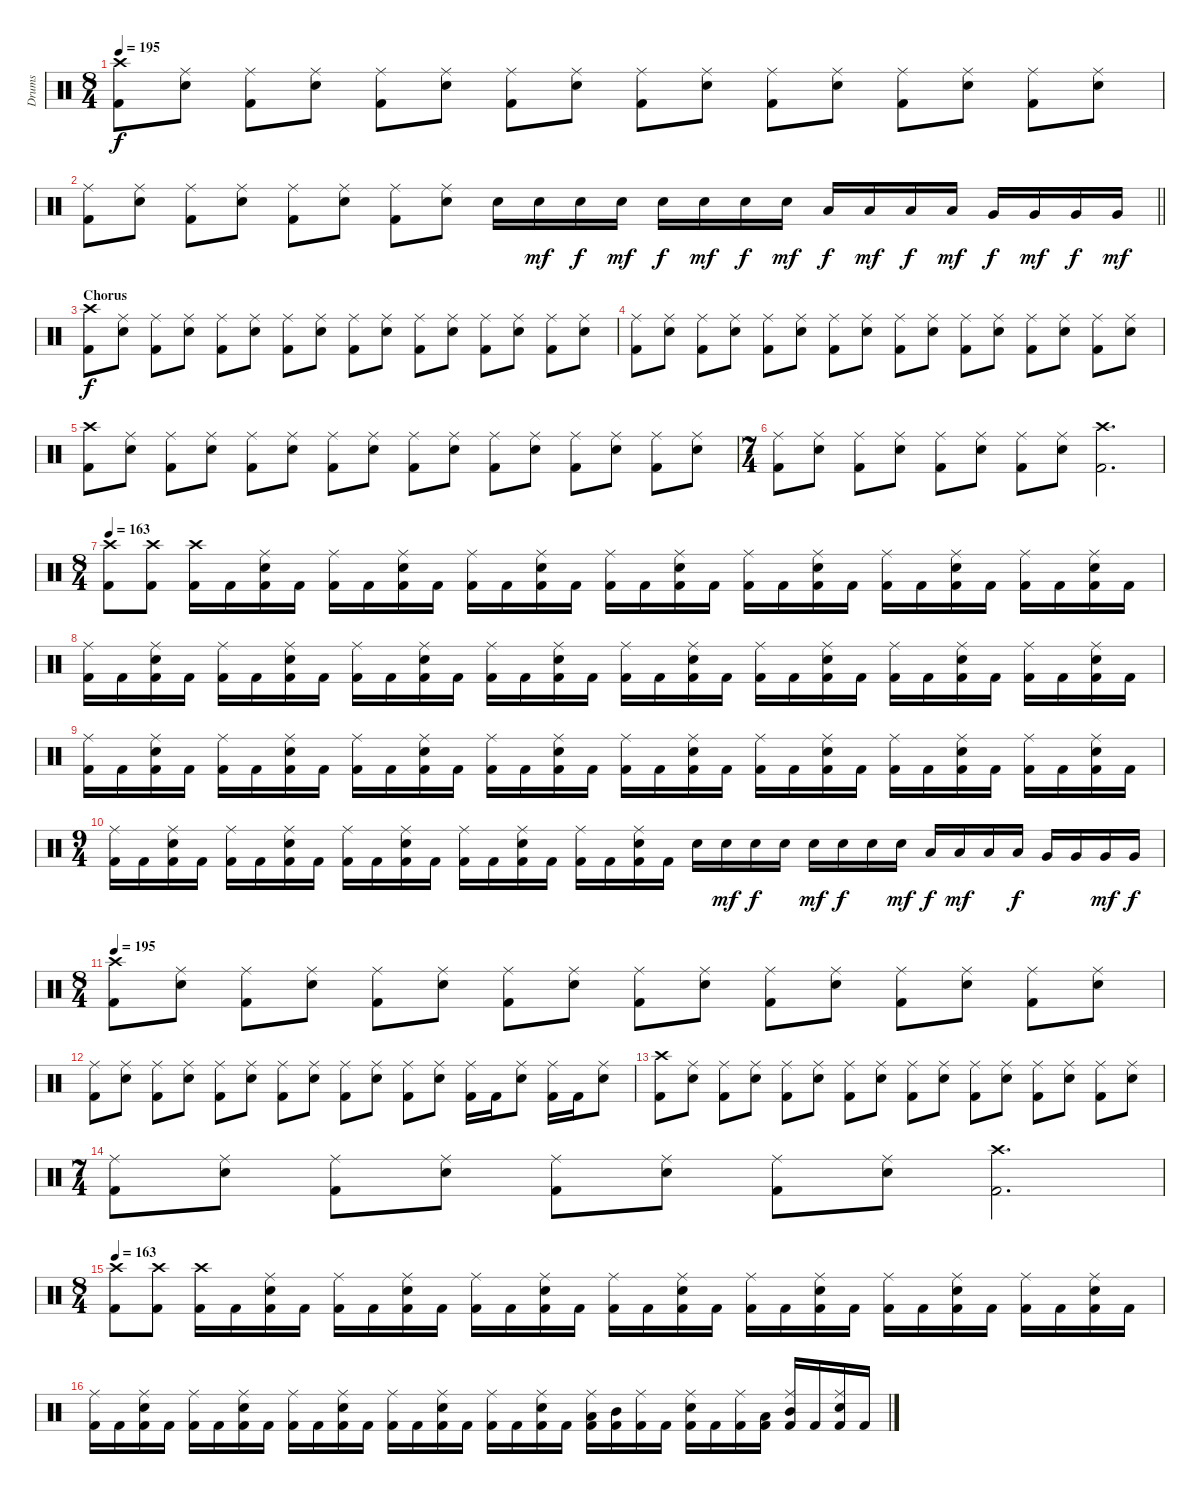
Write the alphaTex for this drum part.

\track ("Drums" "Drums") {instrument percussion}
\staff {score}
\articulation defaults
\ts (8 4)
\tempo 195
\clef neutral
\ks c
("Crash high (hit)" "Kick (hit) 2").8{dy f} ("Ride (middle)" "Snare (hit) 2").8 ("Ride (middle)" "Kick (hit) 2").8 ("Ride (middle)" "Snare (hit) 2").8 ("Ride (middle)" "Kick (hit) 2").8 ("Ride (middle)" "Snare (hit) 2").8 ("Ride (middle)" "Kick (hit) 2").8 ("Ride (middle)" "Snare (hit) 2").8 ("Ride (middle)" "Kick (hit) 2").8 ("Ride (middle)" "Snare (hit) 2").8 ("Ride (middle)" "Kick (hit) 2").8 ("Ride (middle)" "Snare (hit) 2").8 ("Ride (middle)" "Kick (hit) 2").8 ("Ride (middle)" "Snare (hit) 2").8 ("Ride (middle)" "Kick (hit) 2").8 ("Ride (middle)" "Snare (hit) 2").8 |
\barLineRight lightlight
("Ride (middle)" "Kick (hit) 2").8 ("Ride (middle)" "Snare (hit) 2").8 ("Ride (middle)" "Kick (hit) 2").8 ("Ride (middle)" "Snare (hit) 2").8 ("Ride (middle)" "Kick (hit) 2").8 ("Ride (middle)" "Snare (hit) 2").8 ("Ride (middle)" "Kick (hit) 2").8 ("Ride (middle)" "Snare (hit) 2").8 "Snare (hit) 2".16 "Snare (hit) 2".16{dy mf} "Snare (hit) 2".16{dy f} "Snare (hit) 2".16{dy mf} "Snare (hit) 2".16{dy f} "Snare (hit) 2".16{dy mf} "Snare (hit) 2".16{dy f} "Snare (hit) 2".16{dy mf} "Low Tom (hit)".16{dy f} "Low Tom (hit)".16{dy mf} "Low Tom (hit)".16{dy f} "Low Tom (hit)".16{dy mf} "Very Low Tom (hit)".16{dy f} "Very Low Tom (hit)".16{dy mf} "Very Low Tom (hit)".16{dy f} "Very Low Tom (hit)".16{dy mf} |
\section ("" "Chorus")
("Crash high (hit)" "Kick (hit) 2").8{dy f} ("Ride (middle)" "Snare (hit) 2").8 ("Ride (middle)" "Kick (hit) 2").8 ("Ride (middle)" "Snare (hit) 2").8 ("Ride (middle)" "Kick (hit) 2").8 ("Ride (middle)" "Snare (hit) 2").8 ("Ride (middle)" "Kick (hit) 2").8 ("Ride (middle)" "Snare (hit) 2").8 ("Ride (middle)" "Kick (hit) 2").8 ("Ride (middle)" "Snare (hit) 2").8 ("Ride (middle)" "Kick (hit) 2").8 ("Ride (middle)" "Snare (hit) 2").8 ("Ride (middle)" "Kick (hit) 2").8 ("Ride (middle)" "Snare (hit) 2").8 ("Ride (middle)" "Kick (hit) 2").8 ("Ride (middle)" "Snare (hit) 2").8 |
("Ride (middle)" "Kick (hit) 2").8 ("Ride (middle)" "Snare (hit) 2").8 ("Ride (middle)" "Kick (hit) 2").8 ("Ride (middle)" "Snare (hit) 2").8 ("Ride (middle)" "Kick (hit) 2").8 ("Ride (middle)" "Snare (hit) 2").8 ("Ride (middle)" "Kick (hit) 2").8 ("Ride (middle)" "Snare (hit) 2").8 ("Ride (middle)" "Kick (hit) 2").8 ("Ride (middle)" "Snare (hit) 2").8 ("Ride (middle)" "Kick (hit) 2").8 ("Ride (middle)" "Snare (hit) 2").8 ("Ride (middle)" "Kick (hit) 2").8 ("Ride (middle)" "Snare (hit) 2").8 ("Ride (middle)" "Kick (hit) 2").8 ("Ride (middle)" "Snare (hit) 2").8 |
("Crash high (hit)" "Kick (hit) 2").8 ("Ride (middle)" "Snare (hit) 2").8 ("Ride (middle)" "Kick (hit) 2").8 ("Ride (middle)" "Snare (hit) 2").8 ("Ride (middle)" "Kick (hit) 2").8 ("Ride (middle)" "Snare (hit) 2").8 ("Ride (middle)" "Kick (hit) 2").8 ("Ride (middle)" "Snare (hit) 2").8 ("Ride (middle)" "Kick (hit) 2").8 ("Ride (middle)" "Snare (hit) 2").8 ("Ride (middle)" "Kick (hit) 2").8 ("Ride (middle)" "Snare (hit) 2").8 ("Ride (middle)" "Kick (hit) 2").8 ("Ride (middle)" "Snare (hit) 2").8 ("Ride (middle)" "Kick (hit) 2").8 ("Ride (middle)" "Snare (hit) 2").8 |
\ts (7 4)
("Ride (middle)" "Kick (hit) 2").8 ("Ride (middle)" "Snare (hit) 2").8 ("Ride (middle)" "Kick (hit) 2").8 ("Ride (middle)" "Snare (hit) 2").8 ("Ride (middle)" "Kick (hit) 2").8 ("Ride (middle)" "Snare (hit) 2").8 ("Ride (middle)" "Kick (hit) 2").8 ("Ride (middle)" "Snare (hit) 2").8 ("Crash high (hit)" "Kick (hit) 2").2{d} |
\ts (8 4)
\tempo 163
("Crash high (hit)" "Kick (hit) 2").8 ("Crash high (hit)" "Kick (hit) 2").8 ("Crash high (hit)" "Kick (hit) 2").16 "Kick (hit) 2".16 ("Ride (middle)" "Snare (hit) 2" "Kick (hit) 2").16 "Kick (hit) 2".16 ("Ride (middle)" "Kick (hit) 2").16 "Kick (hit) 2".16 ("Ride (middle)" "Snare (hit) 2" "Kick (hit) 2").16 "Kick (hit) 2".16 ("Ride (middle)" "Kick (hit) 2").16 "Kick (hit) 2".16 ("Ride (middle)" "Snare (hit) 2" "Kick (hit) 2").16 "Kick (hit) 2".16 ("Ride (middle)" "Kick (hit) 2").16 "Kick (hit) 2".16 ("Ride (middle)" "Snare (hit) 2" "Kick (hit) 2").16 "Kick (hit) 2".16 ("Ride (middle)" "Kick (hit) 2").16 "Kick (hit) 2".16 ("Ride (middle)" "Snare (hit) 2" "Kick (hit) 2").16 "Kick (hit) 2".16 ("Ride (middle)" "Kick (hit) 2").16 "Kick (hit) 2".16 ("Ride (middle)" "Snare (hit) 2" "Kick (hit) 2").16 "Kick (hit) 2".16 ("Ride (middle)" "Kick (hit) 2").16 "Kick (hit) 2".16 ("Ride (middle)" "Snare (hit) 2" "Kick (hit) 2").16 "Kick (hit) 2".16 |
("Ride (middle)" "Kick (hit) 2").16 "Kick (hit) 2".16 ("Ride (middle)" "Snare (hit) 2" "Kick (hit) 2").16 "Kick (hit) 2".16 ("Ride (middle)" "Kick (hit) 2").16 "Kick (hit) 2".16 ("Ride (middle)" "Snare (hit) 2" "Kick (hit) 2").16 "Kick (hit) 2".16 ("Ride (middle)" "Kick (hit) 2").16 "Kick (hit) 2".16 ("Ride (middle)" "Snare (hit) 2" "Kick (hit) 2").16 "Kick (hit) 2".16 ("Ride (middle)" "Kick (hit) 2").16 "Kick (hit) 2".16 ("Ride (middle)" "Snare (hit) 2" "Kick (hit) 2").16 "Kick (hit) 2".16 ("Ride (middle)" "Kick (hit) 2").16 "Kick (hit) 2".16 ("Ride (middle)" "Snare (hit) 2" "Kick (hit) 2").16 "Kick (hit) 2".16 ("Ride (middle)" "Kick (hit) 2").16 "Kick (hit) 2".16 ("Ride (middle)" "Snare (hit) 2" "Kick (hit) 2").16 "Kick (hit) 2".16 ("Ride (middle)" "Kick (hit) 2").16 "Kick (hit) 2".16 ("Ride (middle)" "Snare (hit) 2" "Kick (hit) 2").16 "Kick (hit) 2".16 ("Ride (middle)" "Kick (hit) 2").16 "Kick (hit) 2".16 ("Ride (middle)" "Snare (hit) 2" "Kick (hit) 2").16 "Kick (hit) 2".16 |
("Ride (middle)" "Kick (hit) 2").16 "Kick (hit) 2".16 ("Ride (middle)" "Snare (hit) 2" "Kick (hit) 2").16 "Kick (hit) 2".16 ("Ride (middle)" "Kick (hit) 2").16 "Kick (hit) 2".16 ("Ride (middle)" "Snare (hit) 2" "Kick (hit) 2").16 "Kick (hit) 2".16 ("Ride (middle)" "Kick (hit) 2").16 "Kick (hit) 2".16 ("Ride (middle)" "Snare (hit) 2" "Kick (hit) 2").16 "Kick (hit) 2".16 ("Ride (middle)" "Kick (hit) 2").16 "Kick (hit) 2".16 ("Ride (middle)" "Snare (hit) 2" "Kick (hit) 2").16 "Kick (hit) 2".16 ("Ride (middle)" "Kick (hit) 2").16 "Kick (hit) 2".16 ("Ride (middle)" "Snare (hit) 2" "Kick (hit) 2").16 "Kick (hit) 2".16 ("Ride (middle)" "Kick (hit) 2").16 "Kick (hit) 2".16 ("Ride (middle)" "Snare (hit) 2" "Kick (hit) 2").16 "Kick (hit) 2".16 ("Ride (middle)" "Kick (hit) 2").16 "Kick (hit) 2".16 ("Ride (middle)" "Snare (hit) 2" "Kick (hit) 2").16 "Kick (hit) 2".16 ("Ride (middle)" "Kick (hit) 2").16 "Kick (hit) 2".16 ("Ride (middle)" "Snare (hit) 2" "Kick (hit) 2").16 "Kick (hit) 2".16 |
\ts (9 4)
("Ride (middle)" "Kick (hit) 2").16 "Kick (hit) 2".16 ("Ride (middle)" "Snare (hit) 2" "Kick (hit) 2").16 "Kick (hit) 2".16 ("Ride (middle)" "Kick (hit) 2").16 "Kick (hit) 2".16 ("Ride (middle)" "Snare (hit) 2" "Kick (hit) 2").16 "Kick (hit) 2".16 ("Ride (middle)" "Kick (hit) 2").16 "Kick (hit) 2".16 ("Ride (middle)" "Snare (hit) 2" "Kick (hit) 2").16 "Kick (hit) 2".16 ("Ride (middle)" "Kick (hit) 2").16 "Kick (hit) 2".16 ("Ride (middle)" "Snare (hit) 2" "Kick (hit) 2").16 "Kick (hit) 2".16 ("Ride (middle)" "Kick (hit) 2").16 "Kick (hit) 2".16 ("Ride (middle)" "Snare (hit) 2" "Kick (hit) 2").16 "Kick (hit) 2".16 "Snare (hit) 2".16 "Snare (hit) 2".16{dy mf} "Snare (hit) 2".16{dy f} "Snare (hit) 2".16 "Snare (hit) 2".16{dy mf} "Snare (hit) 2".16{dy f} "Snare (hit) 2".16 "Snare (hit) 2".16{dy mf} "Low Tom (hit)".16{dy f} "Low Tom (hit)".16{dy mf} "Low Tom (hit)".16 "Low Tom (hit)".16{dy f} "Very Low Tom (hit)".16 "Very Low Tom (hit)".16 "Very Low Tom (hit)".16{dy mf} "Very Low Tom (hit)".16{dy f} |
\ts (8 4)
\tempo 195
("Crash high (hit)" "Kick (hit) 2").8 ("Ride (middle)" "Snare (hit) 2").8 ("Ride (middle)" "Kick (hit) 2").8 ("Ride (middle)" "Snare (hit) 2").8 ("Ride (middle)" "Kick (hit) 2").8 ("Ride (middle)" "Snare (hit) 2").8 ("Ride (middle)" "Kick (hit) 2").8 ("Ride (middle)" "Snare (hit) 2").8 ("Ride (middle)" "Kick (hit) 2").8 ("Ride (middle)" "Snare (hit) 2").8 ("Ride (middle)" "Kick (hit) 2").8 ("Ride (middle)" "Snare (hit) 2").8 ("Ride (middle)" "Kick (hit) 2").8 ("Ride (middle)" "Snare (hit) 2").8 ("Ride (middle)" "Kick (hit) 2").8 ("Ride (middle)" "Snare (hit) 2").8 |
("Ride (middle)" "Kick (hit) 2").8 ("Ride (middle)" "Snare (hit) 2").8 ("Ride (middle)" "Kick (hit) 2").8 ("Ride (middle)" "Snare (hit) 2").8 ("Ride (middle)" "Kick (hit) 2").8 ("Ride (middle)" "Snare (hit) 2").8 ("Ride (middle)" "Kick (hit) 2").8 ("Ride (middle)" "Snare (hit) 2").8 ("Ride (middle)" "Kick (hit) 2").8 ("Ride (middle)" "Snare (hit) 2").8 ("Ride (middle)" "Kick (hit) 2").8 ("Ride (middle)" "Snare (hit) 2").8 ("Ride (middle)" "Kick (hit) 2").16 "Kick (hit) 2".16 ("Ride (middle)" "Snare (hit) 2").8 ("Ride (middle)" "Kick (hit) 2").16 "Kick (hit) 2".16 ("Ride (middle)" "Snare (hit) 2").8 |
("Crash high (hit)" "Kick (hit) 2").8 ("Ride (middle)" "Snare (hit) 2").8 ("Ride (middle)" "Kick (hit) 2").8 ("Ride (middle)" "Snare (hit) 2").8 ("Ride (middle)" "Kick (hit) 2").8 ("Ride (middle)" "Snare (hit) 2").8 ("Ride (middle)" "Kick (hit) 2").8 ("Ride (middle)" "Snare (hit) 2").8 ("Ride (middle)" "Kick (hit) 2").8 ("Ride (middle)" "Snare (hit) 2").8 ("Ride (middle)" "Kick (hit) 2").8 ("Ride (middle)" "Snare (hit) 2").8 ("Ride (middle)" "Kick (hit) 2").8 ("Ride (middle)" "Snare (hit) 2").8 ("Ride (middle)" "Kick (hit) 2").8 ("Ride (middle)" "Snare (hit) 2").8 |
\ts (7 4)
("Ride (middle)" "Kick (hit) 2").8 ("Ride (middle)" "Snare (hit) 2").8 ("Ride (middle)" "Kick (hit) 2").8 ("Ride (middle)" "Snare (hit) 2").8 ("Ride (middle)" "Kick (hit) 2").8 ("Ride (middle)" "Snare (hit) 2").8 ("Ride (middle)" "Kick (hit) 2").8 ("Ride (middle)" "Snare (hit) 2").8 ("Crash high (hit)" "Kick (hit) 2").2{d} |
\ts (8 4)
\tempo 163
("Crash high (hit)" "Kick (hit) 2").8 ("Crash high (hit)" "Kick (hit) 2").8 ("Crash high (hit)" "Kick (hit) 2").16 "Kick (hit) 2".16 ("Ride (middle)" "Snare (hit) 2" "Kick (hit) 2").16 "Kick (hit) 2".16 ("Ride (middle)" "Kick (hit) 2").16 "Kick (hit) 2".16 ("Ride (middle)" "Snare (hit) 2" "Kick (hit) 2").16 "Kick (hit) 2".16 ("Ride (middle)" "Kick (hit) 2").16 "Kick (hit) 2".16 ("Ride (middle)" "Snare (hit) 2" "Kick (hit) 2").16 "Kick (hit) 2".16 ("Ride (middle)" "Kick (hit) 2").16 "Kick (hit) 2".16 ("Ride (middle)" "Snare (hit) 2" "Kick (hit) 2").16 "Kick (hit) 2".16 ("Ride (middle)" "Kick (hit) 2").16 "Kick (hit) 2".16 ("Ride (middle)" "Snare (hit) 2" "Kick (hit) 2").16 "Kick (hit) 2".16 ("Ride (middle)" "Kick (hit) 2").16 "Kick (hit) 2".16 ("Ride (middle)" "Snare (hit) 2" "Kick (hit) 2").16 "Kick (hit) 2".16 ("Ride (middle)" "Kick (hit) 2").16 "Kick (hit) 2".16 ("Ride (middle)" "Snare (hit) 2" "Kick (hit) 2").16 "Kick (hit) 2".16 |
("Ride (middle)" "Kick (hit) 2").16 "Kick (hit) 2".16 ("Ride (middle)" "Snare (hit) 2" "Kick (hit) 2").16 "Kick (hit) 2".16 ("Ride (middle)" "Kick (hit) 2").16 "Kick (hit) 2".16 ("Ride (middle)" "Snare (hit) 2" "Kick (hit) 2").16 "Kick (hit) 2".16 ("Ride (middle)" "Kick (hit) 2").16 "Kick (hit) 2".16 ("Ride (middle)" "Snare (hit) 2" "Kick (hit) 2").16 "Kick (hit) 2".16 ("Ride (middle)" "Kick (hit) 2").16 "Kick (hit) 2".16 ("Ride (middle)" "Snare (hit) 2" "Kick (hit) 2").16 "Kick (hit) 2".16 ("Ride (middle)" "Kick (hit) 2").16 "Kick (hit) 2".16 ("Ride (middle)" "Snare (hit) 2" "Kick (hit) 2").16 "Kick (hit) 2".16 ("Ride (middle)" "Low Tom (hit)" "Kick (hit) 2").16 ("Mid Tom (hit)" "Kick (hit) 2").16 ("Ride (middle)" "Kick (hit) 2").16 "Kick (hit) 2".16 ("Ride (middle)" "Snare (hit) 2" "Kick (hit) 2").16 "Kick (hit) 2".16 ("Ride (middle)" "Kick (hit) 2").16 ("Low Tom (hit)" "Kick (hit) 2").16 ("Ride (middle)" "Mid Tom (hit)" "Kick (hit) 2").16 "Kick (hit) 2".16 ("Ride (middle)" "Snare (hit) 2" "Kick (hit) 2").16 "Kick (hit) 2".16
